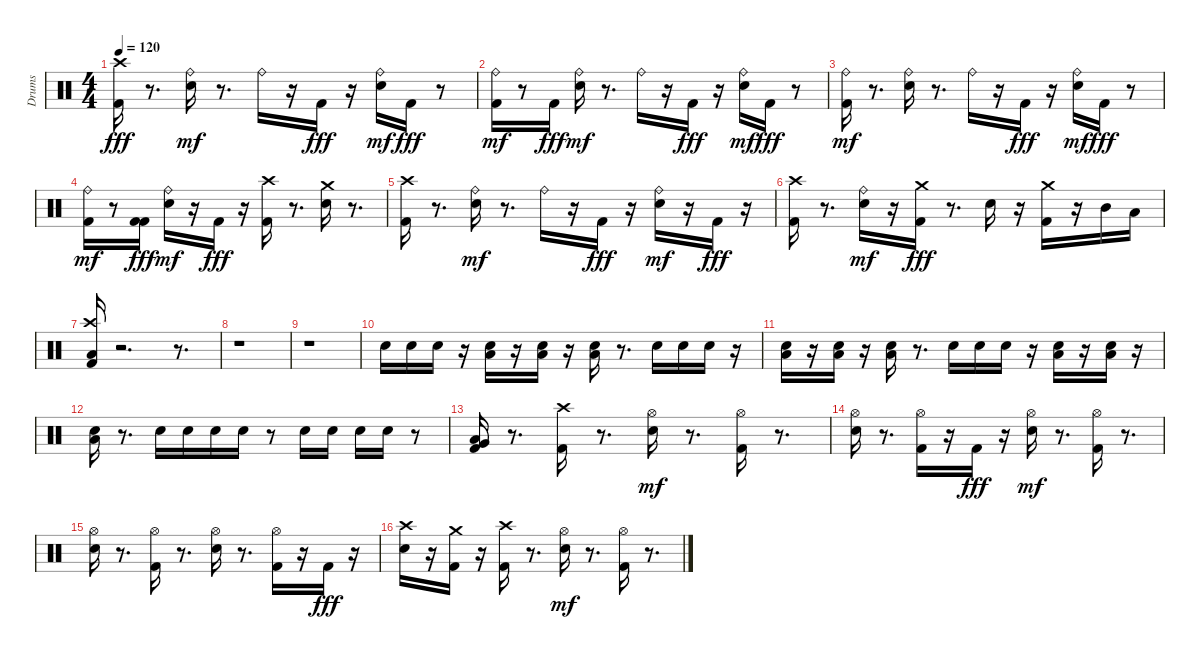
\track ("Drums" "Drums") {instrument percussion}
\staff {score}
\articulation defaults
\ts (4 4)
\tempo 120
\clef neutral
\ks c
("Kick (hit) 2" "Crash high (hit)").16{dy fff} r.8{d} ("Electric Snare (hit)" "Ride (bell)").16{dy mf} r.8{d} "Ride (bell)".16 r.16 "Kick (hit) 2".16{dy fff} r.16 ("Electric Snare (hit)" "Ride (bell)").16{dy mf} "Kick (hit) 2".16{dy fff} r.8 |
("Kick (hit) 2" "Ride (bell)").16{dy mf} r.8 "Kick (hit) 2".16{dy fff} ("Electric Snare (hit)" "Ride (bell)").16{dy mf} r.8{d} "Ride (bell)".16 r.16 "Kick (hit) 2".16{dy fff} r.16 ("Electric Snare (hit)" "Ride (bell)").16{dy mf} "Kick (hit) 2".16{dy fff} r.8 |
("Kick (hit) 2" "Ride (bell)").16{dy mf} r.8{d} ("Electric Snare (hit)" "Ride (bell)").16 r.8{d} "Ride (bell)".16 r.16 "Kick (hit) 2".16{dy fff} r.16 ("Electric Snare (hit)" "Ride (bell)").16{dy mf} "Kick (hit) 2".16{dy fff} r.8 |
("Kick (hit) 2" "Ride (bell)").16{dy mf} r.8 ("Kick (hit) 2" "Kick (hit) 2").16{dy fff} ("Electric Snare (hit)" "Ride (bell)").16{dy mf} r.16 "Kick (hit) 2".16{dy fff} r.16 ("Kick (hit) 2" "Crash high (hit)").16 r.8{d} ("Electric Snare (hit)" "Crash medium (hit)").16 r.8{d} |
("Kick (hit) 2" "Crash high (hit)").16 r.8{d} ("Electric Snare (hit)" "Ride (bell)").16{dy mf} r.8{d} "Ride (bell)".16 r.16 "Kick (hit) 2".16{dy fff} r.16 ("Electric Snare (hit)" "Ride (bell)").16{dy mf} r.16 "Kick (hit) 2".16{dy fff} r.16 |
("Kick (hit) 2" "Crash high (hit)").16 r.8{d} ("Electric Snare (hit)" "Ride (bell)").16{dy mf} r.16 ("Kick (hit) 2" "Crash medium (hit)").16{dy fff} r.8{d} "Electric Snare (hit)".16 r.16 ("Kick (hit) 2" "Crash medium (hit)").16 r.16 "Mid Tom (hit)".16 "Low Tom (hit)".16 |
("Kick (hit) 2" "Low Floor Tom (hit)" "Crash high (hit)").16 r.2{d} r.8{d} |
r.1 |
r.1 |
"Electric Snare (hit)".16 "Electric Snare (hit)".16 "Electric Snare (hit)".16 r.16 ("Electric Snare (hit)" "Low Floor Tom (hit)").16 r.16 ("Electric Snare (hit)" "Low Floor Tom (hit)").16 r.16 ("Electric Snare (hit)" "Low Floor Tom (hit)").16 r.8{d} "Electric Snare (hit)".16 "Electric Snare (hit)".16 "Electric Snare (hit)".16 r.16 |
("Electric Snare (hit)" "Low Floor Tom (hit)").16 r.16 ("Electric Snare (hit)" "Low Floor Tom (hit)").16 r.16 ("Electric Snare (hit)" "Low Floor Tom (hit)").16 r.8{d} "Electric Snare (hit)".16 "Electric Snare (hit)".16 "Electric Snare (hit)".16 r.16 ("Electric Snare (hit)" "Low Floor Tom (hit)").16 r.16 ("Electric Snare (hit)" "Low Floor Tom (hit)").16 r.16 |
("Electric Snare (hit)" "Low Floor Tom (hit)").16 r.8{d} "Electric Snare (hit)".16 "Electric Snare (hit)".16 "Electric Snare (hit)".16 "Electric Snare (hit)".16 r.8 "Electric Snare (hit)".16 "Electric Snare (hit)".16 "Electric Snare (hit)".16 "Electric Snare (hit)".16 r.8 |
("Kick (hit) 2" "Low Floor Tom (hit)" "Very Low Tom (hit)").16 r.8{d} ("Kick (hit) 2" "Crash high (hit)").16 r.8{d} ("Electric Snare (hit)" "Hi-Hat (open)").16{dy mf} r.8{d} ("Kick (hit) 2" "Hi-Hat (open)").16 r.8{d} |
("Electric Snare (hit)" "Hi-Hat (open)").16 r.8{d} ("Kick (hit) 2" "Hi-Hat (open)").16 r.16 "Kick (hit) 2".16{dy fff} r.16 ("Electric Snare (hit)" "Hi-Hat (open)").16{dy mf} r.8{d} ("Kick (hit) 2" "Hi-Hat (open)").16 r.8{d} |
("Electric Snare (hit)" "Hi-Hat (open)").16 r.8{d} ("Kick (hit) 2" "Hi-Hat (open)").16 r.8{d} ("Electric Snare (hit)" "Hi-Hat (open)").16 r.8{d} ("Kick (hit) 2" "Hi-Hat (open)").16 r.16 "Kick (hit) 2".16{dy fff} r.16 |
("Electric Snare (hit)" "Crash high (hit)").16 r.16 ("Kick (hit) 2" "Crash medium (hit)").16 r.16 ("Kick (hit) 2" "Crash high (hit)").16 r.8{d} ("Electric Snare (hit)" "Hi-Hat (open)").16{dy mf} r.8{d} ("Kick (hit) 2" "Hi-Hat (open)").16 r.8{d}
